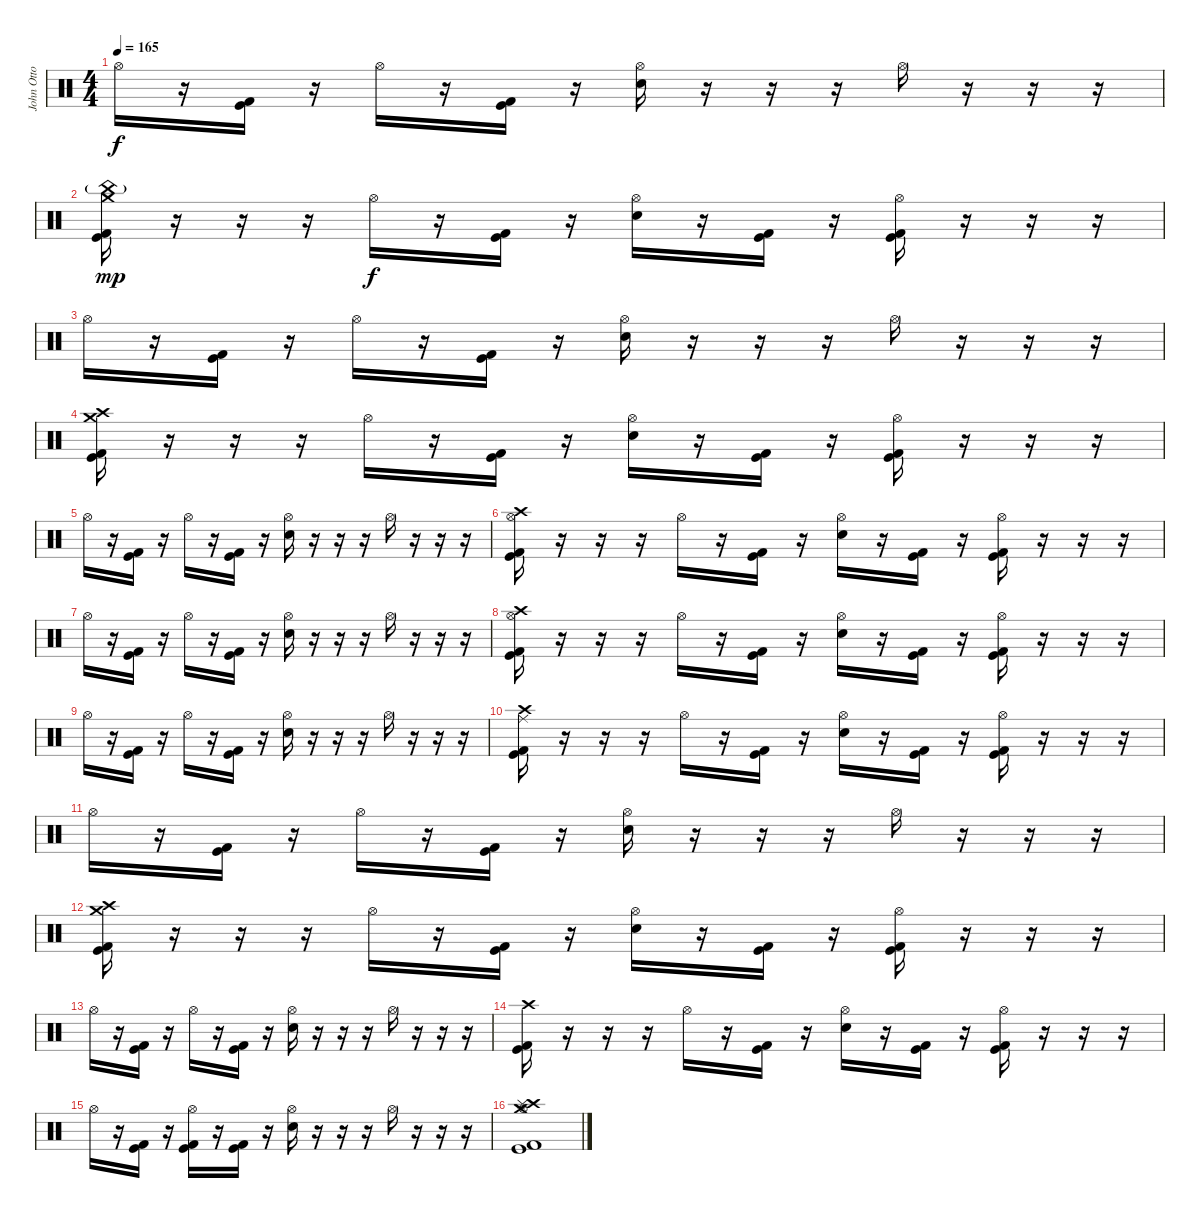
\track ("John Otto" "John Otto") {instrument percussion}
\staff {score}
\articulation defaults
\ts (4 4)
\tempo 165
\clef neutral
\ks c "Hi-Hat (open)".16{dy f}
r.16 ("Kick (hit)" "Kick (hit) 2").16 r.16 "Hi-Hat (open)".16 r.16 ("Kick (hit)" "Kick (hit) 2").16 r.16 ("Hi-Hat (open)" "Electric Snare (hit)").16 r.16 r.16 r.16 "Hi-Hat (open)".16 r.16 r.16 r.16 |
("Crash medium (hit)" "China (hit)"{g} "Kick (hit)" "Kick (hit) 2").16{dy mp} r.16 r.16 r.16 "Hi-Hat (open)".16{dy f} r.16 ("Kick (hit)" "Kick (hit) 2").16 r.16 ("Hi-Hat (open)" "Electric Snare (hit)").16 r.16 ("Kick (hit)" "Kick (hit) 2").16 r.16 ("Hi-Hat (open)" "Kick (hit)" "Kick (hit) 2").16 r.16 r.16 r.16 |
"Hi-Hat (open)".16 r.16 ("Kick (hit)" "Kick (hit) 2").16 r.16 "Hi-Hat (open)".16 r.16 ("Kick (hit)" "Kick (hit) 2").16 r.16 ("Hi-Hat (open)" "Electric Snare (hit)").16 r.16 r.16 r.16 "Hi-Hat (open)".16 r.16 r.16 r.16 |
("Crash high (hit)" "Crash medium (hit)" "Kick (hit)" "Kick (hit) 2").16 r.16 r.16 r.16 "Hi-Hat (open)".16 r.16 ("Kick (hit)" "Kick (hit) 2").16 r.16 ("Hi-Hat (open)" "Electric Snare (hit)").16 r.16 ("Kick (hit)" "Kick (hit) 2").16 r.16 ("Hi-Hat (open)" "Kick (hit)" "Kick (hit) 2").16 r.16 r.16 r.16 |
"Hi-Hat (open)".16 r.16 ("Kick (hit)" "Kick (hit) 2").16 r.16 "Hi-Hat (open)".16 r.16 ("Kick (hit)" "Kick (hit) 2").16 r.16 ("Hi-Hat (open)" "Electric Snare (hit)").16 r.16 r.16 r.16 "Hi-Hat (open)".16 r.16 r.16 r.16 |
("Crash high (hit)" "Hi-Hat (open)" "Kick (hit)" "Kick (hit) 2").16 r.16 r.16 r.16 "Hi-Hat (open)".16 r.16 ("Kick (hit)" "Kick (hit) 2").16 r.16 ("Hi-Hat (open)" "Electric Snare (hit)").16 r.16 ("Kick (hit)" "Kick (hit) 2").16 r.16 ("Hi-Hat (open)" "Kick (hit)" "Kick (hit) 2").16 r.16 r.16 r.16 |
"Hi-Hat (open)".16 r.16 ("Kick (hit)" "Kick (hit) 2").16 r.16 "Hi-Hat (open)".16 r.16 ("Kick (hit)" "Kick (hit) 2").16 r.16 ("Hi-Hat (open)" "Electric Snare (hit)").16 r.16 r.16 r.16 "Hi-Hat (open)".16 r.16 r.16 r.16 |
("Crash high (hit)" "Hi-Hat (open)" "Kick (hit)" "Kick (hit) 2").16 r.16 r.16 r.16 "Hi-Hat (open)".16 r.16 ("Kick (hit)" "Kick (hit) 2").16 r.16 ("Hi-Hat (open)" "Electric Snare (hit)").16 r.16 ("Kick (hit)" "Kick (hit) 2").16 r.16 ("Hi-Hat (open)" "Kick (hit)" "Kick (hit) 2").16 r.16 r.16 r.16 |
"Hi-Hat (open)".16 r.16 ("Kick (hit)" "Kick (hit) 2").16 r.16 "Hi-Hat (open)".16 r.16 ("Kick (hit)" "Kick (hit) 2").16 r.16 ("Hi-Hat (open)" "Electric Snare (hit)").16 r.16 r.16 r.16 "Hi-Hat (open)".16 r.16 r.16 r.16 |
("Crash high (hit)" "Ride (middle)" "Kick (hit)" "Kick (hit) 2").16 r.16 r.16 r.16 "Hi-Hat (open)".16 r.16 ("Kick (hit)" "Kick (hit) 2").16 r.16 ("Hi-Hat (open)" "Electric Snare (hit)").16 r.16 ("Kick (hit)" "Kick (hit) 2").16 r.16 ("Hi-Hat (open)" "Kick (hit)" "Kick (hit) 2").16 r.16 r.16 r.16 |
"Hi-Hat (open)".16 r.16 ("Kick (hit)" "Kick (hit) 2").16 r.16 "Hi-Hat (open)".16 r.16 ("Kick (hit)" "Kick (hit) 2").16 r.16 ("Hi-Hat (open)" "Electric Snare (hit)").16 r.16 r.16 r.16 "Hi-Hat (open)".16 r.16 r.16 r.16 |
("Crash high (hit)" "Crash medium (hit)" "Kick (hit)" "Kick (hit) 2").16 r.16 r.16 r.16 "Hi-Hat (open)".16 r.16 ("Kick (hit)" "Kick (hit) 2").16 r.16 ("Hi-Hat (open)" "Electric Snare (hit)").16 r.16 ("Kick (hit)" "Kick (hit) 2").16 r.16 ("Hi-Hat (open)" "Kick (hit)" "Kick (hit) 2").16 r.16 r.16 r.16 |
"Hi-Hat (open)".16 r.16 ("Kick (hit)" "Kick (hit) 2").16 r.16 "Hi-Hat (open)".16 r.16 ("Kick (hit)" "Kick (hit) 2").16 r.16 ("Hi-Hat (open)" "Electric Snare (hit)").16 r.16 r.16 r.16 "Hi-Hat (open)".16 r.16 r.16 r.16 |
("Crash high (hit)" "Kick (hit)" "Kick (hit) 2").16 r.16 r.16 r.16 "Hi-Hat (open)".16 r.16 ("Kick (hit)" "Kick (hit) 2").16 r.16 ("Hi-Hat (open)" "Electric Snare (hit)").16 r.16 ("Kick (hit)" "Kick (hit) 2").16 r.16 ("Hi-Hat (open)" "Kick (hit)" "Kick (hit) 2").16 r.16 r.16 r.16 |
"Hi-Hat (open)".16 r.16 ("Kick (hit)" "Kick (hit) 2").16 r.16 ("Hi-Hat (open)" "Kick (hit)" "Kick (hit) 2").16 r.16 ("Kick (hit)" "Kick (hit) 2").16 r.16 ("Hi-Hat (open)" "Electric Snare (hit)").16 r.16 r.16 r.16 "Hi-Hat (open)".16 r.16 r.16 r.16 |
("Crash high (hit)" "Crash medium (hit)" "Splash (hit)" "Hi-Hat (open)" "Kick (hit)" "Kick (hit) 2").1
